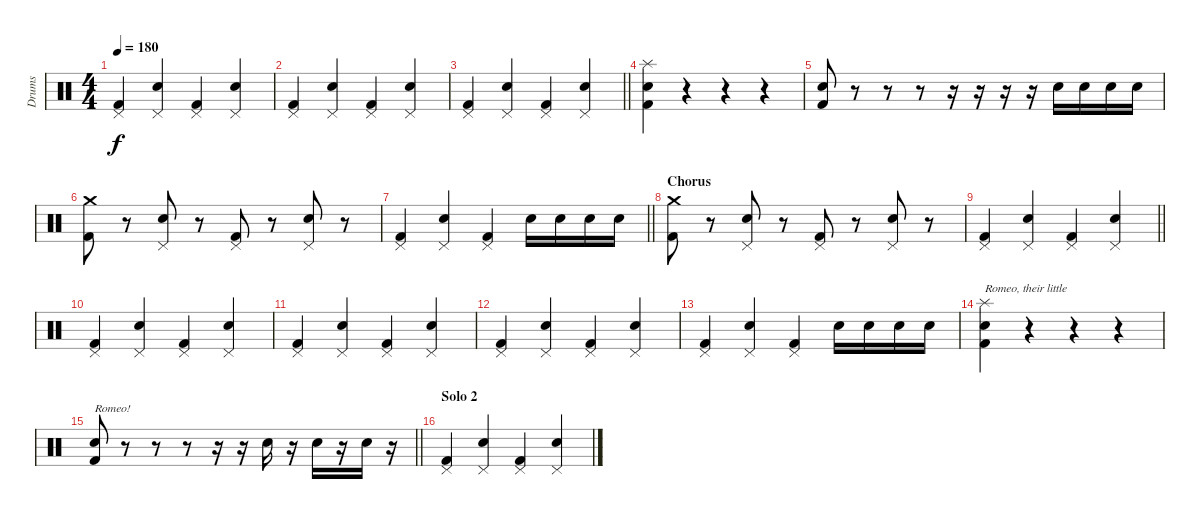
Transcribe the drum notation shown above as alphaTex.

\track ("Drums" "Drums") {instrument percussion}
\staff {score}
\articulation defaults
\ts (4 4)
\tempo 180
\clef neutral
\ks c
("Pedal Hi-Hat (hit)" "Kick (hit) 2").4{dy f} ("Pedal Hi-Hat (hit)" "Snare (hit) 2").4 ("Pedal Hi-Hat (hit)" "Kick (hit) 2").4 ("Pedal Hi-Hat (hit)" "Snare (hit) 2").4 |
("Pedal Hi-Hat (hit)" "Kick (hit) 2").4 ("Pedal Hi-Hat (hit)" "Snare (hit) 2").4 ("Pedal Hi-Hat (hit)" "Kick (hit) 2").4 ("Pedal Hi-Hat (hit)" "Snare (hit) 2").4 |
\barLineRight lightlight
("Pedal Hi-Hat (hit)" "Kick (hit) 2").4 ("Pedal Hi-Hat (hit)" "Snare (hit) 2").4 ("Pedal Hi-Hat (hit)" "Kick (hit) 2").4 ("Pedal Hi-Hat (hit)" "Snare (hit) 2").4 |
("Splash (hit)" "Snare (hit) 2" "Kick (hit) 2").4 r.4 r.4 r.4 |
("Snare (hit) 2" "Kick (hit) 2").8 r.8 r.8 r.8 r.16 r.16 r.16 r.16 "Snare (hit) 2".16 "Snare (hit) 2".16 "Snare (hit) 2".16 "Snare (hit) 2".16 |
("Crash medium (hit)" "Kick (hit) 2").8 r.8 ("Pedal Hi-Hat (hit)" "Snare (hit) 2").8 r.8 ("Pedal Hi-Hat (hit)" "Kick (hit) 2").8 r.8 ("Pedal Hi-Hat (hit)" "Snare (hit) 2").8 r.8 |
\barLineRight lightlight
("Pedal Hi-Hat (hit)" "Kick (hit) 2").4 ("Pedal Hi-Hat (hit)" "Snare (hit) 2").4 ("Pedal Hi-Hat (hit)" "Kick (hit) 2").4 "Snare (hit) 2".16 "Snare (hit) 2".16 "Snare (hit) 2".16 "Snare (hit) 2".16 |
\section ("" "Chorus")
("Crash medium (hit)" "Kick (hit) 2").8 r.8 ("Pedal Hi-Hat (hit)" "Snare (hit) 2").8 r.8 ("Pedal Hi-Hat (hit)" "Kick (hit) 2").8 r.8 ("Pedal Hi-Hat (hit)" "Snare (hit) 2").8 r.8 |
\barLineRight lightlight
("Pedal Hi-Hat (hit)" "Kick (hit) 2").4 ("Pedal Hi-Hat (hit)" "Snare (hit) 2").4 ("Pedal Hi-Hat (hit)" "Kick (hit) 2").4 ("Pedal Hi-Hat (hit)" "Snare (hit) 2").4 |
("Pedal Hi-Hat (hit)" "Kick (hit) 2").4 ("Pedal Hi-Hat (hit)" "Snare (hit) 2").4 ("Pedal Hi-Hat (hit)" "Kick (hit) 2").4 ("Pedal Hi-Hat (hit)" "Snare (hit) 2").4 |
("Pedal Hi-Hat (hit)" "Kick (hit) 2").4 ("Pedal Hi-Hat (hit)" "Snare (hit) 2").4 ("Pedal Hi-Hat (hit)" "Kick (hit) 2").4 ("Pedal Hi-Hat (hit)" "Snare (hit) 2").4 |
("Pedal Hi-Hat (hit)" "Kick (hit) 2").4 ("Pedal Hi-Hat (hit)" "Snare (hit) 2").4 ("Pedal Hi-Hat (hit)" "Kick (hit) 2").4 ("Pedal Hi-Hat (hit)" "Snare (hit) 2").4 |
("Pedal Hi-Hat (hit)" "Kick (hit) 2").4 ("Pedal Hi-Hat (hit)" "Snare (hit) 2").4 ("Pedal Hi-Hat (hit)" "Kick (hit) 2").4 "Snare (hit) 2".16 "Snare (hit) 2".16 "Snare (hit) 2".16 "Snare (hit) 2".16 |
("Splash (hit)" "Snare (hit) 2" "Kick (hit) 2").4{txt "Romeo, their little"} r.4 r.4 r.4 |
\barLineRight lightlight
("Snare (hit) 2" "Kick (hit) 2").8{txt "Romeo!"} r.8 r.8 r.8 r.16 r.16 "Snare (hit) 2".16 r.16 "Snare (hit) 2".16 r.16 "Snare (hit) 2".16 r.16 |
\section ("" "Solo 2")
("Pedal Hi-Hat (hit)" "Kick (hit) 2").4 ("Pedal Hi-Hat (hit)" "Snare (hit) 2").4 ("Pedal Hi-Hat (hit)" "Kick (hit) 2").4 ("Pedal Hi-Hat (hit)" "Snare (hit) 2").4
